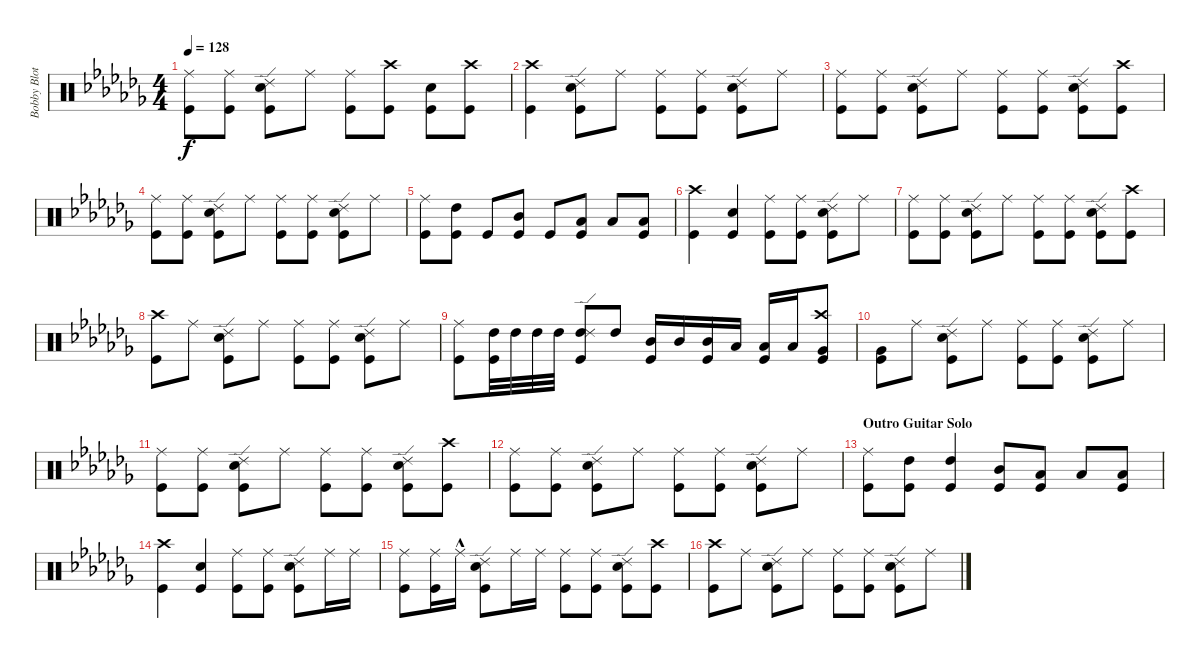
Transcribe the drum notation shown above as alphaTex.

\track ("Bobby Blotzer" "Bobby Blot") {instrument percussion}
\staff {score}
\articulation defaults
\ts (4 4)
\tempo 128
\clef neutral
\ks cb
("Kick (hit)" "Ride (middle)").8{dy f} ("Kick (hit)" "Ride (middle)").8 ("Snare (hit) 2" "Ride (edge) 2" "Kick (hit)").8 "Ride (middle)".8 ("Ride (middle)" "Kick (hit)").8 ("Kick (hit)" "Crash high (hit)").8 ("Kick (hit)" "Snare (hit) 2").8 ("Crash high (hit)" "Kick (hit)").8 |
("Kick (hit)" "Crash high (hit)").4 ("Kick (hit)" "Snare (hit) 2" "Ride (edge) 2").8 "Ride (middle)".8 ("Kick (hit)" "Ride (middle)").8 ("Ride (middle)" "Kick (hit)").8 ("Kick (hit)" "Snare (hit) 2" "Ride (edge) 2").8 "Ride (middle)".8 |
("Ride (middle)" "Kick (hit)").8 ("Kick (hit)" "Ride (middle)").8 ("Ride (edge) 2" "Kick (hit)" "Snare (hit) 2").8 "Ride (middle)".8 ("Ride (middle)" "Kick (hit)").8 ("Ride (middle)" "Kick (hit)").8 ("Ride (edge) 2" "Kick (hit)" "Snare (hit) 2").8 ("Kick (hit)" "Crash high (hit)").8 |
("Kick (hit)" "Ride (middle)").8 ("Ride (middle)" "Kick (hit)").8 ("Kick (hit)" "Snare (hit) 2" "Ride (edge) 2").8 "Ride (middle)".8 ("Kick (hit)" "Ride (middle)").8 ("Kick (hit)" "Ride (middle)").8 ("Snare (hit) 2" "Kick (hit)" "Ride (edge) 2").8 "Ride (middle)".8 |
("Kick (hit)" "Ride (middle)").8 ("High Tom (hit)" "Kick (hit)").8 "Kick (hit)".8 ("Mid Tom (hit)" "Kick (hit)").8 "Kick (hit)".8 ("Kick (hit)" "Low Tom (hit)").8 "Low Tom (hit)".8 ("Low Tom (hit)" "Kick (hit)").8 |
("Kick (hit)" "Crash high (hit)").4 ("Kick (hit)" "Snare (hit) 2").4 ("Kick (hit)" "Ride (middle)").8 ("Kick (hit)" "Ride (middle)").8 ("Snare (hit) 2" "Kick (hit)" "Ride (edge) 2").8 "Ride (middle)".8 |
("Kick (hit)" "Ride (middle)").8 ("Kick (hit)" "Ride (middle)").8 ("Snare (hit) 2" "Kick (hit)" "Ride (edge) 2").8 "Ride (middle)".8 ("Ride (middle)" "Kick (hit)").8 ("Kick (hit)" "Ride (middle)").8 ("Ride (edge) 2" "Kick (hit)" "Snare (hit) 2").8 ("Kick (hit)" "Crash high (hit)").8 |
("Kick (hit)" "Crash high (hit)").8 "Ride (middle)".8 ("Kick (hit)" "Snare (hit) 2" "Ride (edge) 2").8 "Ride (middle)".8 ("Kick (hit)" "Ride (middle)").8 ("Kick (hit)" "Ride (middle)").8 ("Snare (hit) 2" "Kick (hit)" "Ride (edge) 2").8 "Ride (middle)".8 |
("Kick (hit)" "Ride (middle)").8 ("Kick (hit)" "High Tom (hit)").32 "High Tom (hit)".32 "High Tom (hit)".32 "High Tom (hit)".32 ("High Tom (hit)" "Ride (edge) 2" "Kick (hit)").8 "High Tom (hit)".8 ("Mid Tom (hit)" "Kick (hit)").16 "Mid Tom (hit)".16 ("Kick (hit)" "Mid Tom (hit)").16 "Low Tom (hit)".16 ("Low Tom (hit)" "Kick (hit)").16 "Low Tom (hit)".16 ("Very Low Tom (hit)" "Kick (hit)" "Crash high (hit)").8 |
("Kick (hit)" "Very Low Tom (hit)").8 "Ride (middle)".8 ("Kick (hit)" "Snare (hit) 2" "Ride (edge) 2").8 "Ride (middle)".8 ("Kick (hit)" "Ride (middle)").8 ("Ride (middle)" "Kick (hit)").8 ("Kick (hit)" "Snare (hit) 2" "Ride (edge) 2").8 "Ride (middle)".8 |
("Ride (middle)" "Kick (hit)").8 ("Kick (hit)" "Ride (middle)").8 ("Ride (edge) 2" "Kick (hit)" "Snare (hit) 2").8 "Ride (middle)".8 ("Ride (middle)" "Kick (hit)").8 ("Ride (middle)" "Kick (hit)").8 ("Ride (edge) 2" "Kick (hit)" "Snare (hit) 2").8 ("Kick (hit)" "Crash high (hit)").8 |
("Kick (hit)" "Ride (middle)").8 ("Ride (middle)" "Kick (hit)").8 ("Kick (hit)" "Snare (hit) 2" "Ride (edge) 2").8 "Ride (middle)".8 ("Kick (hit)" "Ride (middle)").8 ("Kick (hit)" "Ride (middle)").8 ("Snare (hit) 2" "Kick (hit)" "Ride (edge) 2").8 "Ride (middle)".8 |
\section ("" "Outro Guitar Solo")
("Kick (hit)" "Ride (middle)").8 ("High Tom (hit)" "Kick (hit)").8 ("Kick (hit)" "High Tom (hit)").4 ("Mid Tom (hit)" "Kick (hit)").8 ("Kick (hit)" "Low Tom (hit)").8 "Low Tom (hit)".8 ("Low Tom (hit)" "Kick (hit)").8 |
("Kick (hit)" "Crash high (hit)").4 ("Kick (hit)" "Snare (hit) 2").4 ("Kick (hit)" "Ride (middle)").8 ("Kick (hit)" "Ride (middle)").8 ("Snare (hit) 2" "Kick (hit)" "Ride (edge) 2").8 "Ride (middle)".16 "Ride (middle)".16 |
("Kick (hit)" "Ride (middle)").8 ("Kick (hit)" "Ride (middle)").16 "Ride (middle)"{hac}.16 ("Snare (hit) 2" "Kick (hit)" "Ride (edge) 2").8 "Ride (middle)".16 "Ride (middle)".16 ("Ride (middle)" "Kick (hit)").8 ("Kick (hit)" "Ride (middle)").8 ("Ride (edge) 2" "Kick (hit)" "Snare (hit) 2").8 ("Kick (hit)" "Crash high (hit)").8 |
("Kick (hit)" "Crash high (hit)").8 "Ride (middle)".8 ("Kick (hit)" "Snare (hit) 2" "Ride (edge) 2").8 "Ride (middle)".8 ("Kick (hit)" "Ride (middle)").8 ("Ride (middle)" "Kick (hit)").8 ("Snare (hit) 2" "Ride (edge) 2" "Kick (hit)").8 "Ride (middle)".8
